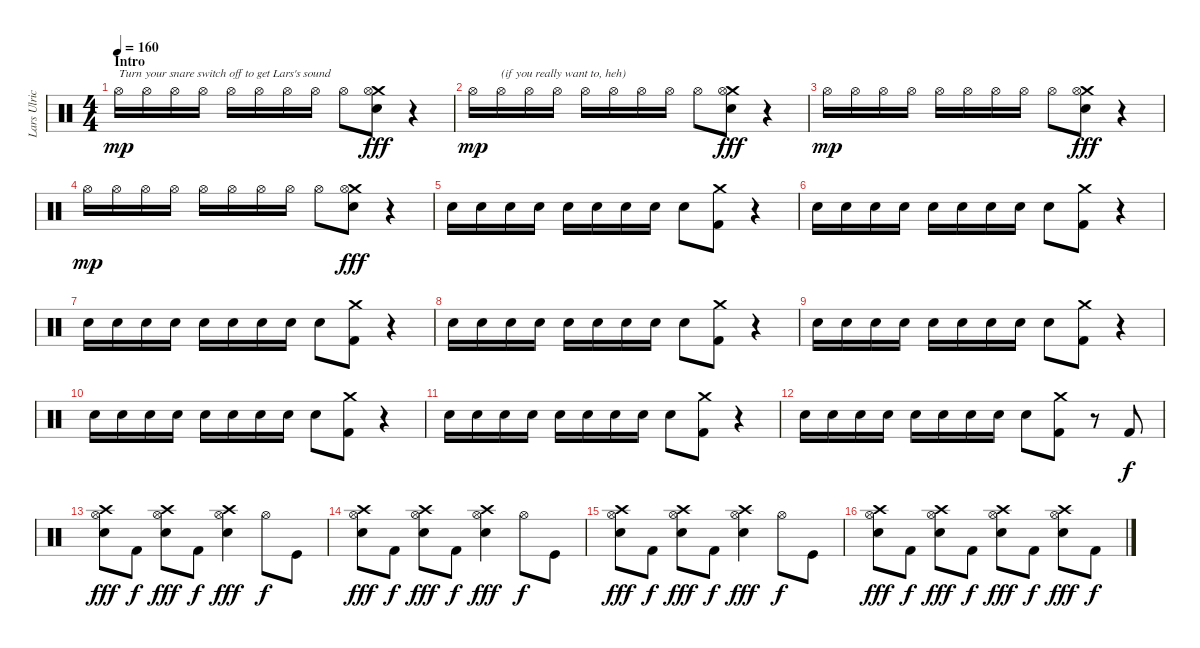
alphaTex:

\track ("Lars Ulrich" "Lars Ulric") {instrument percussion}
\staff {score}
\articulation defaults
\ts (4 4)
\section ("" "Intro")
\tempo 160
\clef neutral
\ks c "Hi-Hat (open)".16{txt "Turn your snare switch off to get Lars's sound" dy mp} "Hi-Hat (open)".16 "Hi-Hat (open)".16 "Hi-Hat (open)".16 "Hi-Hat (open)".16 "Hi-Hat (open)".16 "Hi-Hat (open)".16 "Hi-Hat (open)".16 "Hi-Hat (open)".8
("Crash medium (hit)" "Hi-Hat (open)" "Electric Snare (hit)").8{dy fff} r.4 |
"Hi-Hat (open)".16{dy mp} "Hi-Hat (open)".16{txt "(if you really want to, heh)"} "Hi-Hat (open)".16 "Hi-Hat (open)".16 "Hi-Hat (open)".16 "Hi-Hat (open)".16 "Hi-Hat (open)".16 "Hi-Hat (open)".16 "Hi-Hat (open)".8 ("Crash medium (hit)" "Hi-Hat (open)" "Electric Snare (hit)").8{dy fff} r.4 |
"Hi-Hat (open)".16{dy mp} "Hi-Hat (open)".16 "Hi-Hat (open)".16 "Hi-Hat (open)".16 "Hi-Hat (open)".16 "Hi-Hat (open)".16 "Hi-Hat (open)".16 "Hi-Hat (open)".16 "Hi-Hat (open)".8 ("Crash medium (hit)" "Hi-Hat (open)" "Electric Snare (hit)").8{dy fff} r.4 |
"Hi-Hat (open)".16{dy mp} "Hi-Hat (open)".16 "Hi-Hat (open)".16 "Hi-Hat (open)".16 "Hi-Hat (open)".16 "Hi-Hat (open)".16 "Hi-Hat (open)".16 "Hi-Hat (open)".16 "Hi-Hat (open)".8 ("Crash medium (hit)" "Hi-Hat (open)" "Electric Snare (hit)").8{dy fff} r.4 |
"Electric Snare (hit)".16 "Electric Snare (hit)".16 "Electric Snare (hit)".16 "Electric Snare (hit)".16 "Electric Snare (hit)".16 "Electric Snare (hit)".16 "Electric Snare (hit)".16 "Electric Snare (hit)".16 "Electric Snare (hit)".8 ("Crash medium (hit)" "Kick (hit) 2").8 r.4 |
"Electric Snare (hit)".16 "Electric Snare (hit)".16 "Electric Snare (hit)".16 "Electric Snare (hit)".16 "Electric Snare (hit)".16 "Electric Snare (hit)".16 "Electric Snare (hit)".16 "Electric Snare (hit)".16 "Electric Snare (hit)".8 ("Crash medium (hit)" "Kick (hit) 2").8 r.4 |
"Electric Snare (hit)".16 "Electric Snare (hit)".16 "Electric Snare (hit)".16 "Electric Snare (hit)".16 "Electric Snare (hit)".16 "Electric Snare (hit)".16 "Electric Snare (hit)".16 "Electric Snare (hit)".16 "Electric Snare (hit)".8 ("Crash medium (hit)" "Kick (hit) 2").8 r.4 |
"Electric Snare (hit)".16 "Electric Snare (hit)".16 "Electric Snare (hit)".16 "Electric Snare (hit)".16 "Electric Snare (hit)".16 "Electric Snare (hit)".16 "Electric Snare (hit)".16 "Electric Snare (hit)".16 "Electric Snare (hit)".8 ("Crash medium (hit)" "Kick (hit) 2").8 r.4 |
"Electric Snare (hit)".16 "Electric Snare (hit)".16 "Electric Snare (hit)".16 "Electric Snare (hit)".16 "Electric Snare (hit)".16 "Electric Snare (hit)".16 "Electric Snare (hit)".16 "Electric Snare (hit)".16 "Electric Snare (hit)".8 ("Crash medium (hit)" "Kick (hit) 2").8 r.4 |
"Electric Snare (hit)".16 "Electric Snare (hit)".16 "Electric Snare (hit)".16 "Electric Snare (hit)".16 "Electric Snare (hit)".16 "Electric Snare (hit)".16 "Electric Snare (hit)".16 "Electric Snare (hit)".16 "Electric Snare (hit)".8 ("Crash medium (hit)" "Kick (hit) 2").8 r.4 |
"Electric Snare (hit)".16 "Electric Snare (hit)".16 "Electric Snare (hit)".16 "Electric Snare (hit)".16 "Electric Snare (hit)".16 "Electric Snare (hit)".16 "Electric Snare (hit)".16 "Electric Snare (hit)".16 "Electric Snare (hit)".8 ("Crash medium (hit)" "Kick (hit) 2").8 r.4 |
"Electric Snare (hit)".16 "Electric Snare (hit)".16 "Electric Snare (hit)".16 "Electric Snare (hit)".16 "Electric Snare (hit)".16 "Electric Snare (hit)".16 "Electric Snare (hit)".16 "Electric Snare (hit)".16 "Electric Snare (hit)".8 ("Crash medium (hit)" "Kick (hit) 2").8 r.8 "Kick (hit) 2".8{dy f} |
("Crash high (hit)" "Hi-Hat (open)" "Electric Snare (hit)").8{dy fff} "Kick (hit) 2".8{dy f} ("Crash high (hit)" "Hi-Hat (open)" "Electric Snare (hit)").8{dy fff} "Kick (hit) 2".8{dy f} ("Crash high (hit)" "Hi-Hat (open)" "Electric Snare (hit)").4{dy fff} "Hi-Hat (open)".8{dy f} "Kick (hit)".8 |
("Crash high (hit)" "Hi-Hat (open)" "Electric Snare (hit)").8{dy fff} "Kick (hit) 2".8{dy f} ("Crash high (hit)" "Hi-Hat (open)" "Electric Snare (hit)").8{dy fff} "Kick (hit) 2".8{dy f} ("Crash high (hit)" "Hi-Hat (open)" "Electric Snare (hit)").4{dy fff} "Hi-Hat (open)".8{dy f} "Kick (hit)".8 |
("Crash high (hit)" "Hi-Hat (open)" "Electric Snare (hit)").8{dy fff} "Kick (hit) 2".8{dy f} ("Crash high (hit)" "Hi-Hat (open)" "Electric Snare (hit)").8{dy fff} "Kick (hit) 2".8{dy f} ("Crash high (hit)" "Hi-Hat (open)" "Electric Snare (hit)").4{dy fff} "Hi-Hat (open)".8{dy f} "Kick (hit)".8 |
("Crash high (hit)" "Hi-Hat (open)" "Electric Snare (hit)").8{dy fff} "Kick (hit) 2".8{dy f} ("Crash high (hit)" "Hi-Hat (open)" "Electric Snare (hit)").8{dy fff} "Kick (hit) 2".8{dy f} ("Crash high (hit)" "Hi-Hat (open)" "Electric Snare (hit)").8{dy fff} "Kick (hit) 2".8{dy f} ("Crash high (hit)" "Hi-Hat (open)" "Electric Snare (hit)").8{dy fff} "Kick (hit) 2".8{dy f}
